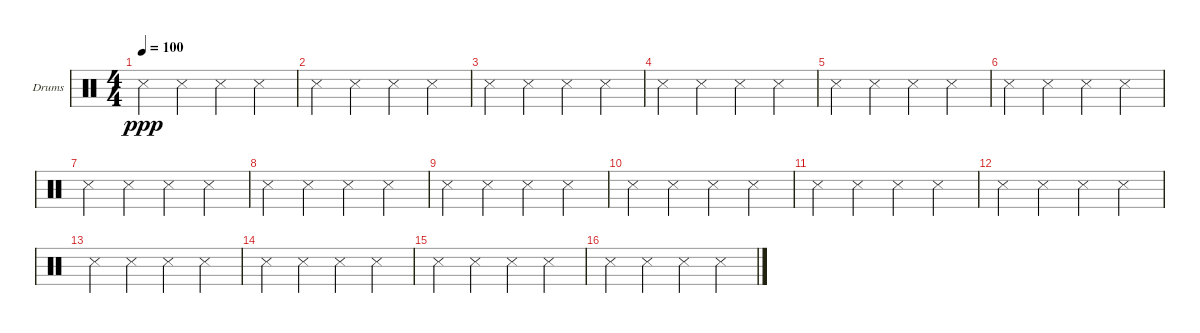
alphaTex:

\bracketExtendMode groupsimilarinstruments
\firstSystemTrackNameOrientation horizontal
\otherSystemsTrackNameOrientation horizontal
\track ("Drumkit" "Drums") {instrument percussion}
\staff {score}
\articulation defaults
\ts (4 4)
\tempo 100
\clef neutral
\ks c "Snare (side stick) 3".4{dy ppp} "Snare (side stick) 3".4 "Snare (side stick) 3".4 "Snare (side stick) 3".4
|
"Snare (side stick) 3".4 "Snare (side stick) 3".4 "Snare (side stick) 3".4 "Snare (side stick) 3".4 |
"Snare (side stick) 3".4 "Snare (side stick) 3".4 "Snare (side stick) 3".4 "Snare (side stick) 3".4 |
"Snare (side stick) 3".4 "Snare (side stick) 3".4 "Snare (side stick) 3".4 "Snare (side stick) 3".4 |
"Snare (side stick) 3".4 "Snare (side stick) 3".4 "Snare (side stick) 3".4 "Snare (side stick) 3".4 |
"Snare (side stick) 3".4 "Snare (side stick) 3".4 "Snare (side stick) 3".4 "Snare (side stick) 3".4 |
"Snare (side stick) 3".4 "Snare (side stick) 3".4 "Snare (side stick) 3".4 "Snare (side stick) 3".4 |
"Snare (side stick) 3".4 "Snare (side stick) 3".4 "Snare (side stick) 3".4 "Snare (side stick) 3".4 |
"Snare (side stick) 3".4 "Snare (side stick) 3".4 "Snare (side stick) 3".4 "Snare (side stick) 3".4 |
"Snare (side stick) 3".4 "Snare (side stick) 3".4 "Snare (side stick) 3".4 "Snare (side stick) 3".4 |
"Snare (side stick) 3".4 "Snare (side stick) 3".4 "Snare (side stick) 3".4 "Snare (side stick) 3".4 |
"Snare (side stick) 3".4 "Snare (side stick) 3".4 "Snare (side stick) 3".4 "Snare (side stick) 3".4 |
"Snare (side stick) 3".4 "Snare (side stick) 3".4 "Snare (side stick) 3".4 "Snare (side stick) 3".4 |
"Snare (side stick) 3".4 "Snare (side stick) 3".4 "Snare (side stick) 3".4 "Snare (side stick) 3".4 |
"Snare (side stick) 3".4 "Snare (side stick) 3".4 "Snare (side stick) 3".4 "Snare (side stick) 3".4 |
"Snare (side stick) 3".4 "Snare (side stick) 3".4 "Snare (side stick) 3".4 "Snare (side stick) 3".4
